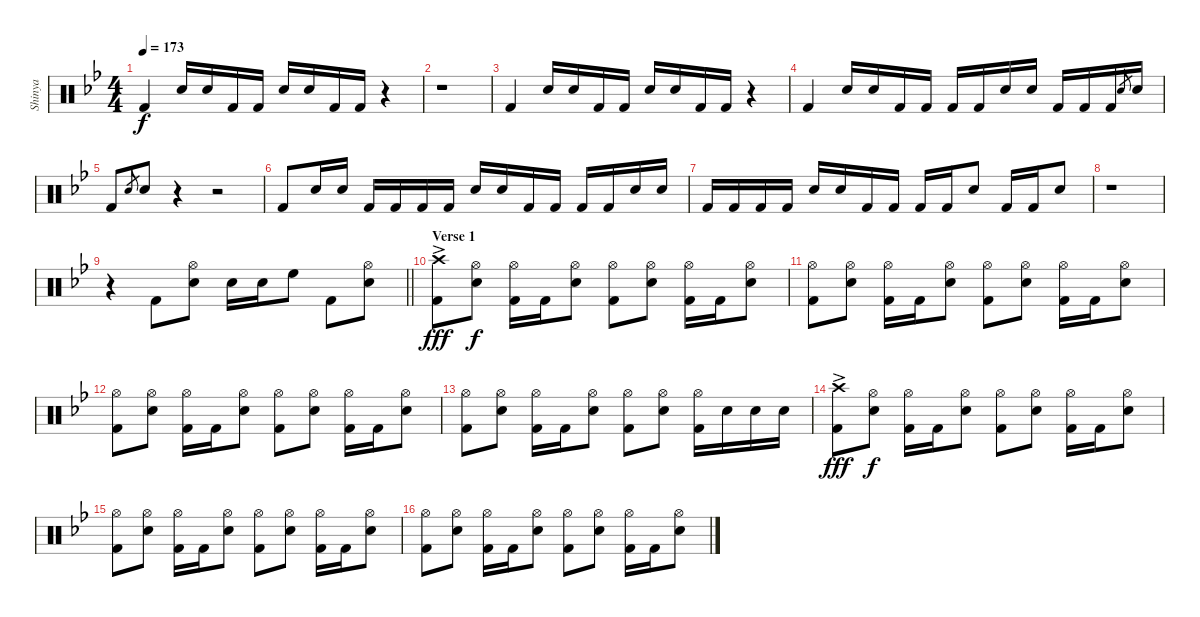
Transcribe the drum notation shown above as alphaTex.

\track ("Shinya" "Shinya") {instrument percussion}
\staff {score}
\articulation defaults
\ts (4 4)
\tempo 173
\clef neutral
\ks bb "Kick (hit) 2".4{dy f} "Snare (hit) 2".16 "Snare (hit) 2".16 "Kick (hit) 2".16 "Kick (hit) 2".16 "Snare (hit) 2".16 "Snare (hit) 2".16 "Kick (hit) 2".16 "Kick (hit) 2".16
r.4 |
r.1 |
"Kick (hit) 2".4 "Snare (hit) 2".16 "Snare (hit) 2".16 "Kick (hit) 2".16 "Kick (hit) 2".16 "Snare (hit) 2".16 "Snare (hit) 2".16 "Kick (hit) 2".16 "Kick (hit) 2".16 r.4 |
"Kick (hit) 2".4 "Snare (hit) 2".16 "Snare (hit) 2".16 "Kick (hit) 2".16 "Kick (hit) 2".16 "Kick (hit) 2".16 "Kick (hit) 2".16 "Snare (hit) 2".16 "Snare (hit) 2".16 "Kick (hit) 2".16 "Kick (hit) 2".16 "Kick (hit) 2".16 "Snare (hit) 2".8{gr} "Snare (hit) 2".16 |
"Kick (hit) 2".8 "Snare (hit) 2".8{gr} "Snare (hit) 2".8 r.4 r.2 |
"Kick (hit) 2".8 "Snare (hit) 2".16 "Snare (hit) 2".16 "Kick (hit) 2".16 "Kick (hit) 2".16 "Kick (hit) 2".16 "Kick (hit) 2".16 "Snare (hit) 2".16 "Snare (hit) 2".16 "Kick (hit) 2".16 "Kick (hit) 2".16 "Kick (hit) 2".16 "Kick (hit) 2".16 "Snare (hit) 2".16 "Snare (hit) 2".16 |
"Kick (hit) 2".16 "Kick (hit) 2".16 "Kick (hit) 2".16 "Kick (hit) 2".16 "Snare (hit) 2".16 "Snare (hit) 2".16 "Kick (hit) 2".16 "Kick (hit) 2".16 "Kick (hit) 2".16 "Kick (hit) 2".16 "Snare (hit) 2".8 "Kick (hit) 2".16 "Kick (hit) 2".16 "Snare (hit) 2".8 |
r.1 |
\barLineRight lightlight
r.4 "Kick (hit) 2".8 ("Hi-Hat (open)" "Snare (hit) 2").8 "Snare (hit) 2".16 "Snare (hit) 2".16 "High Floor Tom (hit)".8 "Kick (hit) 2".8 ("Hi-Hat (open)" "Snare (hit) 2").8 |
\section ("" "Verse 1")
("Crash high (hit)"{ac} "Kick (hit) 2").8{dy fff} ("Hi-Hat (open)" "Snare (hit) 2").8{dy f} ("Hi-Hat (open)" "Kick (hit) 2").16 "Kick (hit) 2".16 ("Hi-Hat (open)" "Snare (hit) 2").8 ("Hi-Hat (open)" "Kick (hit) 2").8 ("Hi-Hat (open)" "Snare (hit) 2").8 ("Hi-Hat (open)" "Kick (hit) 2").16 "Kick (hit) 2".16 ("Hi-Hat (open)" "Snare (hit) 2").8 |
("Hi-Hat (open)" "Kick (hit) 2").8 ("Hi-Hat (open)" "Snare (hit) 2").8 ("Hi-Hat (open)" "Kick (hit) 2").16 "Kick (hit) 2".16 ("Hi-Hat (open)" "Snare (hit) 2").8 ("Hi-Hat (open)" "Kick (hit) 2").8 ("Hi-Hat (open)" "Snare (hit) 2").8 ("Hi-Hat (open)" "Kick (hit) 2").16 "Kick (hit) 2".16 ("Hi-Hat (open)" "Snare (hit) 2").8 |
("Hi-Hat (open)" "Kick (hit) 2").8 ("Hi-Hat (open)" "Snare (hit) 2").8 ("Hi-Hat (open)" "Kick (hit) 2").16 "Kick (hit) 2".16 ("Hi-Hat (open)" "Snare (hit) 2").8 ("Hi-Hat (open)" "Kick (hit) 2").8 ("Hi-Hat (open)" "Snare (hit) 2").8 ("Hi-Hat (open)" "Kick (hit) 2").16 "Kick (hit) 2".16 ("Hi-Hat (open)" "Snare (hit) 2").8 |
("Hi-Hat (open)" "Kick (hit) 2").8 ("Hi-Hat (open)" "Snare (hit) 2").8 ("Hi-Hat (open)" "Kick (hit) 2").16 "Kick (hit) 2".16 ("Hi-Hat (open)" "Snare (hit) 2").8 ("Hi-Hat (open)" "Kick (hit) 2").8 ("Hi-Hat (open)" "Snare (hit) 2").8 ("Hi-Hat (open)" "Kick (hit) 2").16 "Snare (hit) 2".16 "Snare (hit) 2".16 "Snare (hit) 2".16 |
("Crash high (hit)"{ac} "Kick (hit) 2").8{dy fff} ("Hi-Hat (open)" "Snare (hit) 2").8{dy f} ("Hi-Hat (open)" "Kick (hit) 2").16 "Kick (hit) 2".16 ("Hi-Hat (open)" "Snare (hit) 2").8 ("Hi-Hat (open)" "Kick (hit) 2").8 ("Hi-Hat (open)" "Snare (hit) 2").8 ("Hi-Hat (open)" "Kick (hit) 2").16 "Kick (hit) 2".16 ("Hi-Hat (open)" "Snare (hit) 2").8 |
("Hi-Hat (open)" "Kick (hit) 2").8 ("Hi-Hat (open)" "Snare (hit) 2").8 ("Hi-Hat (open)" "Kick (hit) 2").16 "Kick (hit) 2".16 ("Hi-Hat (open)" "Snare (hit) 2").8 ("Hi-Hat (open)" "Kick (hit) 2").8 ("Hi-Hat (open)" "Snare (hit) 2").8 ("Hi-Hat (open)" "Kick (hit) 2").16 "Kick (hit) 2".16 ("Hi-Hat (open)" "Snare (hit) 2").8 |
("Hi-Hat (open)" "Kick (hit) 2").8 ("Hi-Hat (open)" "Snare (hit) 2").8 ("Hi-Hat (open)" "Kick (hit) 2").16 "Kick (hit) 2".16 ("Hi-Hat (open)" "Snare (hit) 2").8 ("Hi-Hat (open)" "Kick (hit) 2").8 ("Hi-Hat (open)" "Snare (hit) 2").8 ("Hi-Hat (open)" "Kick (hit) 2").16 "Kick (hit) 2".16 ("Hi-Hat (open)" "Snare (hit) 2").8
